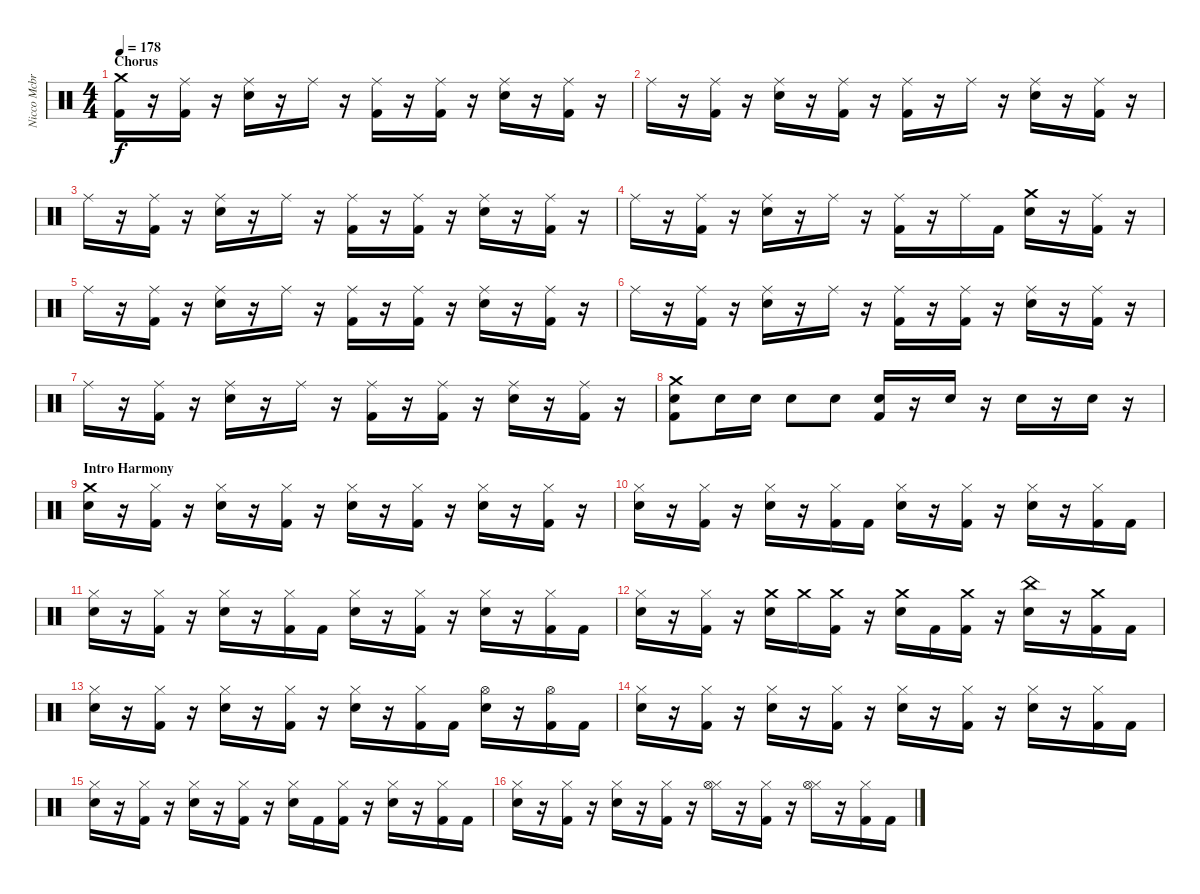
\track ("Nicco Mcbrian - Drums" "Nicco Mcbr") {instrument percussion}
\staff {score}
\articulation defaults
\ts (4 4)
\section ("" "Chorus")
\tempo 178
\clef neutral
\ks c
("Crash medium (hit)" "Kick (hit) 2").16{dy f} r.16 ("Ride (middle)" "Kick (hit) 2").16 r.16 ("Ride (middle)" "Snare (hit) 2").16 r.16 "Ride (middle)".16 r.16 ("Ride (middle)" "Kick (hit) 2").16 r.16 ("Ride (middle)" "Kick (hit) 2").16 r.16 ("Ride (middle)" "Snare (hit) 2").16 r.16 ("Ride (middle)" "Kick (hit) 2").16 r.16 |
"Ride (middle)".16 r.16 ("Ride (middle)" "Kick (hit) 2").16 r.16 ("Ride (middle)" "Snare (hit) 2").16 r.16 ("Ride (middle)" "Kick (hit) 2").16 r.16 ("Ride (middle)" "Kick (hit) 2").16 r.16 "Ride (middle)".16 r.16 ("Ride (middle)" "Snare (hit) 2").16 r.16 ("Ride (middle)" "Kick (hit) 2").16 r.16 |
"Ride (middle)".16 r.16 ("Ride (middle)" "Kick (hit) 2").16 r.16 ("Ride (middle)" "Snare (hit) 2").16 r.16 "Ride (middle)".16 r.16 ("Ride (middle)" "Kick (hit) 2").16 r.16 ("Ride (middle)" "Kick (hit) 2").16 r.16 ("Ride (middle)" "Snare (hit) 2").16 r.16 ("Ride (middle)" "Kick (hit) 2").16 r.16 |
"Ride (middle)".16 r.16 ("Ride (middle)" "Kick (hit) 2").16 r.16 ("Ride (middle)" "Snare (hit) 2").16 r.16 "Ride (middle)".16 r.16 ("Ride (middle)" "Kick (hit) 2").16 r.16 "Ride (middle)".16 "Kick (hit) 2".16 ("Crash medium (hit)" "Snare (hit) 2").16 r.16 ("Ride (middle)" "Kick (hit) 2").16 r.16 |
"Ride (middle)".16 r.16 ("Ride (middle)" "Kick (hit) 2").16 r.16 ("Ride (middle)" "Snare (hit) 2").16 r.16 "Ride (middle)".16 r.16 ("Ride (middle)" "Kick (hit) 2").16 r.16 ("Ride (middle)" "Kick (hit) 2").16 r.16 ("Ride (middle)" "Snare (hit) 2").16 r.16 ("Ride (middle)" "Kick (hit) 2").16 r.16 |
"Ride (middle)".16 r.16 ("Ride (middle)" "Kick (hit) 2").16 r.16 ("Ride (middle)" "Snare (hit) 2").16 r.16 "Ride (middle)".16 r.16 ("Ride (middle)" "Kick (hit) 2").16 r.16 ("Ride (middle)" "Kick (hit) 2").16 r.16 ("Ride (middle)" "Snare (hit) 2").16 r.16 ("Ride (middle)" "Kick (hit) 2").16 r.16 |
"Ride (middle)".16 r.16 ("Ride (middle)" "Kick (hit) 2").16 r.16 ("Ride (middle)" "Snare (hit) 2").16 r.16 "Ride (middle)".16 r.16 ("Ride (middle)" "Kick (hit) 2").16 r.16 ("Ride (middle)" "Kick (hit) 2").16 r.16 ("Ride (middle)" "Snare (hit) 2").16 r.16 ("Ride (middle)" "Kick (hit) 2").16 r.16 |
("Crash medium (hit)" "Snare (hit) 2" "Kick (hit) 2").8 "Snare (hit) 2".16 "Snare (hit) 2".16 "Snare (hit) 2".8 "Snare (hit) 2".8 ("Snare (hit) 2" "Kick (hit) 2").16 r.16 "Snare (hit) 2".16 r.16 "Snare (hit) 2".16 r.16 "Snare (hit) 2".16 r.16 |
\section ("" "Intro Harmony")
("Crash medium (hit)" "Snare (hit) 2").16{volume 10} r.16 ("Hi-Hat (closed)" "Kick (hit) 2").16 r.16 ("Hi-Hat (closed)" "Snare (hit) 2").16 r.16 ("Hi-Hat (closed)" "Kick (hit) 2").16 r.16 ("Hi-Hat (closed)" "Snare (hit) 2").16 r.16 ("Hi-Hat (closed)" "Kick (hit) 2").16 r.16 ("Hi-Hat (closed)" "Snare (hit) 2").16 r.16 ("Hi-Hat (closed)" "Kick (hit) 2").16 r.16 |
("Hi-Hat (closed)" "Snare (hit) 2").16 r.16 ("Hi-Hat (closed)" "Kick (hit) 2").16 r.16 ("Hi-Hat (closed)" "Snare (hit) 2").16 r.16 ("Hi-Hat (closed)" "Kick (hit) 2").16 "Kick (hit) 2".16 ("Hi-Hat (closed)" "Snare (hit) 2").16 r.16 ("Hi-Hat (closed)" "Kick (hit) 2").16 r.16 ("Hi-Hat (closed)" "Snare (hit) 2").16 r.16 ("Hi-Hat (closed)" "Kick (hit) 2").16 "Kick (hit) 2".16 |
("Hi-Hat (closed)" "Snare (hit) 2").16 r.16 ("Hi-Hat (closed)" "Kick (hit) 2").16 r.16 ("Hi-Hat (closed)" "Snare (hit) 2").16 r.16 ("Hi-Hat (closed)" "Kick (hit) 2").16 "Kick (hit) 2".16 ("Hi-Hat (closed)" "Snare (hit) 2").16 r.16 ("Hi-Hat (closed)" "Kick (hit) 2").16 r.16 ("Hi-Hat (closed)" "Snare (hit) 2").16 r.16 ("Hi-Hat (closed)" "Kick (hit) 2").16 "Kick (hit) 2".16 |
("Hi-Hat (closed)" "Snare (hit) 2").16 r.16 ("Hi-Hat (closed)" "Kick (hit) 2").16 r.16 ("Crash medium (hit)" "Snare (hit) 2").16 "Crash medium (hit)".16 ("Crash medium (hit)" "Kick (hit) 2").16 r.16 ("Crash medium (hit)" "Snare (hit) 2").16 "Kick (hit) 2".16 ("Crash medium (hit)" "Kick (hit) 2").16 r.16 ("China (hit)" "Snare (hit) 2").16 r.16 ("Crash medium (hit)" "Kick (hit) 2").16 "Kick (hit) 2".16 |
("Hi-Hat (closed)" "Snare (hit) 2").16 r.16 ("Hi-Hat (closed)" "Kick (hit) 2").16 r.16 ("Hi-Hat (closed)" "Snare (hit) 2").16 r.16 ("Hi-Hat (closed)" "Kick (hit) 2").16 r.16 ("Hi-Hat (closed)" "Snare (hit) 2").16 r.16 ("Hi-Hat (closed)" "Kick (hit) 2").16 "Kick (hit) 2".16 ("Hi-Hat (open)" "Snare (hit) 2").16 r.16 ("Hi-Hat (open)" "Kick (hit) 2").16 "Kick (hit) 2".16 |
("Hi-Hat (closed)" "Snare (hit) 2").16 r.16 ("Hi-Hat (closed)" "Kick (hit) 2").16 r.16 ("Hi-Hat (closed)" "Snare (hit) 2").16 r.16 ("Hi-Hat (closed)" "Kick (hit) 2").16 r.16 ("Hi-Hat (closed)" "Snare (hit) 2").16 r.16 ("Hi-Hat (closed)" "Kick (hit) 2").16 r.16 ("Hi-Hat (closed)" "Snare (hit) 2").16 r.16 ("Hi-Hat (closed)" "Kick (hit) 2").16 "Kick (hit) 2".16 |
("Hi-Hat (closed)" "Snare (hit) 2").16 r.16 ("Hi-Hat (closed)" "Kick (hit) 2").16 r.16 ("Hi-Hat (closed)" "Snare (hit) 2").16 r.16 ("Hi-Hat (closed)" "Kick (hit) 2").16 r.16 ("Hi-Hat (closed)" "Snare (hit) 2").16 "Kick (hit) 2".16 ("Hi-Hat (closed)" "Kick (hit) 2").16 r.16 ("Hi-Hat (closed)" "Snare (hit) 2").16 r.16 ("Hi-Hat (closed)" "Kick (hit) 2").16 "Kick (hit) 2".16 |
("Hi-Hat (closed)" "Snare (hit) 2").16 r.16 ("Hi-Hat (closed)" "Kick (hit) 2").16 r.16 ("Hi-Hat (closed)" "Snare (hit) 2").16 r.16 ("Hi-Hat (closed)" "Kick (hit) 2").16 r.16 ("Hi-Hat (closed)" "Hi-Hat (open)").16 r.16 ("Hi-Hat (closed)" "Kick (hit) 2").16 r.16 ("Hi-Hat (closed)" "Hi-Hat (open)").16 r.16 ("Hi-Hat (closed)" "Kick (hit) 2").16 "Kick (hit) 2".16
